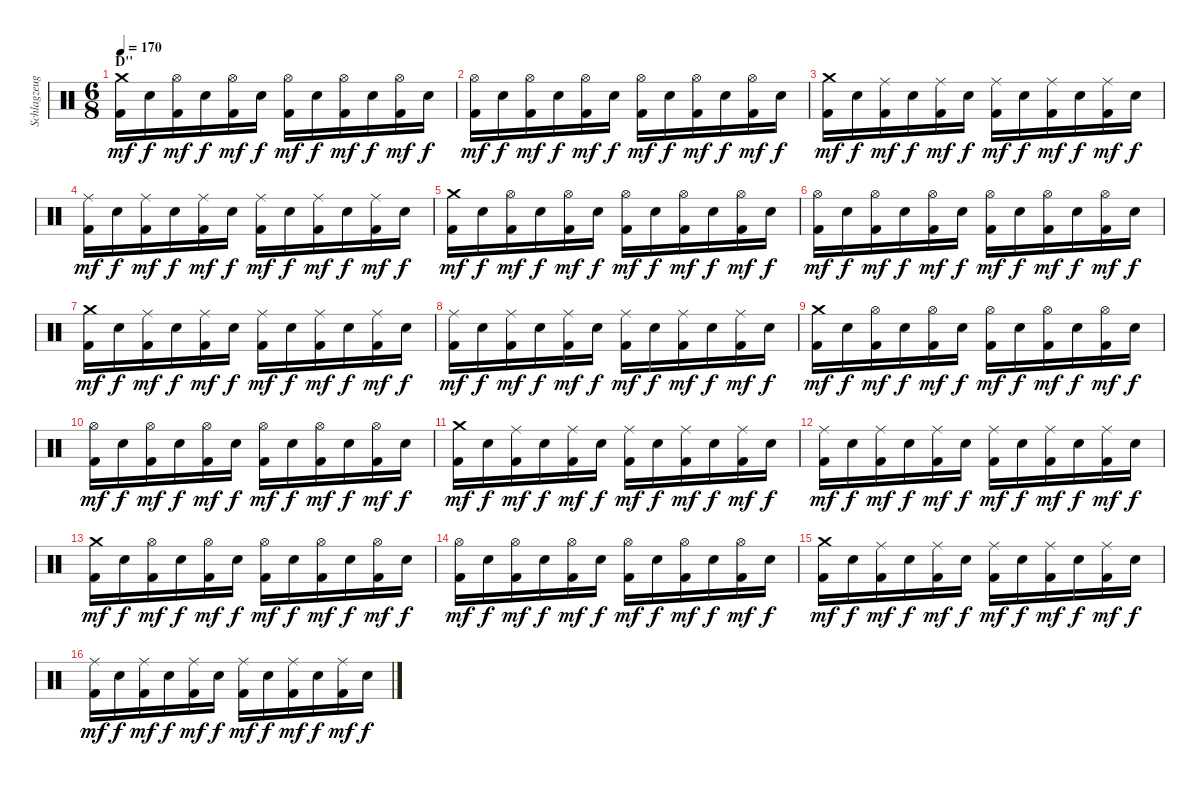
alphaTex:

\track ("Schlagzeug" "Schlagzeug") {instrument percussion}
\staff {score}
\articulation defaults
\ts (6 8)
\section ("" "D''")
\tempo 170
\clef neutral
\ks c
("Crash medium (hit)" "Kick (hit) 2").16{dy mf} "Electric Snare (hit)".16{dy f} ("Hi-Hat (open)" "Kick (hit) 2").16{dy mf} "Electric Snare (hit)".16{dy f} ("Hi-Hat (open)" "Kick (hit) 2").16{dy mf} "Electric Snare (hit)".16{dy f} ("Hi-Hat (open)" "Kick (hit) 2").16{dy mf} "Electric Snare (hit)".16{dy f} ("Hi-Hat (open)" "Kick (hit) 2").16{dy mf} "Electric Snare (hit)".16{dy f} ("Hi-Hat (open)" "Kick (hit) 2").16{dy mf} "Electric Snare (hit)".16{dy f} |
("Hi-Hat (open)" "Kick (hit) 2").16{dy mf} "Electric Snare (hit)".16{dy f} ("Hi-Hat (open)" "Kick (hit) 2").16{dy mf} "Electric Snare (hit)".16{dy f} ("Hi-Hat (open)" "Kick (hit) 2").16{dy mf} "Electric Snare (hit)".16{dy f} ("Hi-Hat (open)" "Kick (hit) 2").16{dy mf} "Electric Snare (hit)".16{dy f} ("Hi-Hat (open)" "Kick (hit) 2").16{dy mf} "Electric Snare (hit)".16{dy f} ("Hi-Hat (open)" "Kick (hit) 2").16{dy mf} "Electric Snare (hit)".16{dy f} |
("Crash medium (hit)" "Kick (hit) 2").16{dy mf} "Electric Snare (hit)".16{dy f} ("Ride (middle)" "Kick (hit) 2").16{dy mf} "Electric Snare (hit)".16{dy f} ("Ride (middle)" "Kick (hit) 2").16{dy mf} "Electric Snare (hit)".16{dy f} ("Ride (middle)" "Kick (hit) 2").16{dy mf} "Electric Snare (hit)".16{dy f} ("Ride (middle)" "Kick (hit) 2").16{dy mf} "Electric Snare (hit)".16{dy f} ("Ride (middle)" "Kick (hit) 2").16{dy mf} "Electric Snare (hit)".16{dy f} |
("Ride (middle)" "Kick (hit) 2").16{dy mf} "Electric Snare (hit)".16{dy f} ("Ride (middle)" "Kick (hit) 2").16{dy mf} "Electric Snare (hit)".16{dy f} ("Ride (middle)" "Kick (hit) 2").16{dy mf} "Electric Snare (hit)".16{dy f} ("Ride (middle)" "Kick (hit) 2").16{dy mf} "Electric Snare (hit)".16{dy f} ("Ride (middle)" "Kick (hit) 2").16{dy mf} "Electric Snare (hit)".16{dy f} ("Ride (middle)" "Kick (hit) 2").16{dy mf} "Electric Snare (hit)".16{dy f} |
("Crash medium (hit)" "Kick (hit) 2").16{dy mf} "Electric Snare (hit)".16{dy f} ("Hi-Hat (open)" "Kick (hit) 2").16{dy mf} "Electric Snare (hit)".16{dy f} ("Hi-Hat (open)" "Kick (hit) 2").16{dy mf} "Electric Snare (hit)".16{dy f} ("Hi-Hat (open)" "Kick (hit) 2").16{dy mf} "Electric Snare (hit)".16{dy f} ("Hi-Hat (open)" "Kick (hit) 2").16{dy mf} "Electric Snare (hit)".16{dy f} ("Hi-Hat (open)" "Kick (hit) 2").16{dy mf} "Electric Snare (hit)".16{dy f} |
("Hi-Hat (open)" "Kick (hit) 2").16{dy mf} "Electric Snare (hit)".16{dy f} ("Hi-Hat (open)" "Kick (hit) 2").16{dy mf} "Electric Snare (hit)".16{dy f} ("Hi-Hat (open)" "Kick (hit) 2").16{dy mf} "Electric Snare (hit)".16{dy f} ("Hi-Hat (open)" "Kick (hit) 2").16{dy mf} "Electric Snare (hit)".16{dy f} ("Hi-Hat (open)" "Kick (hit) 2").16{dy mf} "Electric Snare (hit)".16{dy f} ("Hi-Hat (open)" "Kick (hit) 2").16{dy mf} "Electric Snare (hit)".16{dy f} |
("Crash medium (hit)" "Kick (hit) 2").16{dy mf} "Electric Snare (hit)".16{dy f} ("Ride (middle)" "Kick (hit) 2").16{dy mf} "Electric Snare (hit)".16{dy f} ("Ride (middle)" "Kick (hit) 2").16{dy mf} "Electric Snare (hit)".16{dy f} ("Ride (middle)" "Kick (hit) 2").16{dy mf} "Electric Snare (hit)".16{dy f} ("Ride (middle)" "Kick (hit) 2").16{dy mf} "Electric Snare (hit)".16{dy f} ("Ride (middle)" "Kick (hit) 2").16{dy mf} "Electric Snare (hit)".16{dy f} |
("Ride (middle)" "Kick (hit) 2").16{dy mf} "Electric Snare (hit)".16{dy f} ("Ride (middle)" "Kick (hit) 2").16{dy mf} "Electric Snare (hit)".16{dy f} ("Ride (middle)" "Kick (hit) 2").16{dy mf} "Electric Snare (hit)".16{dy f} ("Ride (middle)" "Kick (hit) 2").16{dy mf} "Electric Snare (hit)".16{dy f} ("Ride (middle)" "Kick (hit) 2").16{dy mf} "Electric Snare (hit)".16{dy f} ("Ride (middle)" "Kick (hit) 2").16{dy mf} "Electric Snare (hit)".16{dy f} |
("Crash medium (hit)" "Kick (hit) 2").16{dy mf} "Electric Snare (hit)".16{dy f} ("Hi-Hat (open)" "Kick (hit) 2").16{dy mf} "Electric Snare (hit)".16{dy f} ("Hi-Hat (open)" "Kick (hit) 2").16{dy mf} "Electric Snare (hit)".16{dy f} ("Hi-Hat (open)" "Kick (hit) 2").16{dy mf} "Electric Snare (hit)".16{dy f} ("Hi-Hat (open)" "Kick (hit) 2").16{dy mf} "Electric Snare (hit)".16{dy f} ("Hi-Hat (open)" "Kick (hit) 2").16{dy mf} "Electric Snare (hit)".16{dy f} |
("Hi-Hat (open)" "Kick (hit) 2").16{dy mf} "Electric Snare (hit)".16{dy f} ("Hi-Hat (open)" "Kick (hit) 2").16{dy mf} "Electric Snare (hit)".16{dy f} ("Hi-Hat (open)" "Kick (hit) 2").16{dy mf} "Electric Snare (hit)".16{dy f} ("Hi-Hat (open)" "Kick (hit) 2").16{dy mf} "Electric Snare (hit)".16{dy f} ("Hi-Hat (open)" "Kick (hit) 2").16{dy mf} "Electric Snare (hit)".16{dy f} ("Hi-Hat (open)" "Kick (hit) 2").16{dy mf} "Electric Snare (hit)".16{dy f} |
("Crash medium (hit)" "Kick (hit) 2").16{dy mf} "Electric Snare (hit)".16{dy f} ("Ride (middle)" "Kick (hit) 2").16{dy mf} "Electric Snare (hit)".16{dy f} ("Ride (middle)" "Kick (hit) 2").16{dy mf} "Electric Snare (hit)".16{dy f} ("Ride (middle)" "Kick (hit) 2").16{dy mf} "Electric Snare (hit)".16{dy f} ("Ride (middle)" "Kick (hit) 2").16{dy mf} "Electric Snare (hit)".16{dy f} ("Ride (middle)" "Kick (hit) 2").16{dy mf} "Electric Snare (hit)".16{dy f} |
("Ride (middle)" "Kick (hit) 2").16{dy mf} "Electric Snare (hit)".16{dy f} ("Ride (middle)" "Kick (hit) 2").16{dy mf} "Electric Snare (hit)".16{dy f} ("Ride (middle)" "Kick (hit) 2").16{dy mf} "Electric Snare (hit)".16{dy f} ("Ride (middle)" "Kick (hit) 2").16{dy mf} "Electric Snare (hit)".16{dy f} ("Ride (middle)" "Kick (hit) 2").16{dy mf} "Electric Snare (hit)".16{dy f} ("Ride (middle)" "Kick (hit) 2").16{dy mf} "Electric Snare (hit)".16{dy f} |
("Crash medium (hit)" "Kick (hit) 2").16{dy mf} "Electric Snare (hit)".16{dy f} ("Hi-Hat (open)" "Kick (hit) 2").16{dy mf} "Electric Snare (hit)".16{dy f} ("Hi-Hat (open)" "Kick (hit) 2").16{dy mf} "Electric Snare (hit)".16{dy f} ("Hi-Hat (open)" "Kick (hit) 2").16{dy mf} "Electric Snare (hit)".16{dy f} ("Hi-Hat (open)" "Kick (hit) 2").16{dy mf} "Electric Snare (hit)".16{dy f} ("Hi-Hat (open)" "Kick (hit) 2").16{dy mf} "Electric Snare (hit)".16{dy f} |
("Hi-Hat (open)" "Kick (hit) 2").16{dy mf} "Electric Snare (hit)".16{dy f} ("Hi-Hat (open)" "Kick (hit) 2").16{dy mf} "Electric Snare (hit)".16{dy f} ("Hi-Hat (open)" "Kick (hit) 2").16{dy mf} "Electric Snare (hit)".16{dy f} ("Hi-Hat (open)" "Kick (hit) 2").16{dy mf} "Electric Snare (hit)".16{dy f} ("Hi-Hat (open)" "Kick (hit) 2").16{dy mf} "Electric Snare (hit)".16{dy f} ("Hi-Hat (open)" "Kick (hit) 2").16{dy mf} "Electric Snare (hit)".16{dy f} |
("Crash medium (hit)" "Kick (hit) 2").16{dy mf} "Electric Snare (hit)".16{dy f} ("Ride (middle)" "Kick (hit) 2").16{dy mf} "Electric Snare (hit)".16{dy f} ("Ride (middle)" "Kick (hit) 2").16{dy mf} "Electric Snare (hit)".16{dy f} ("Ride (middle)" "Kick (hit) 2").16{dy mf} "Electric Snare (hit)".16{dy f} ("Ride (middle)" "Kick (hit) 2").16{dy mf} "Electric Snare (hit)".16{dy f} ("Ride (middle)" "Kick (hit) 2").16{dy mf} "Electric Snare (hit)".16{dy f} |
("Ride (middle)" "Kick (hit) 2").16{dy mf} "Electric Snare (hit)".16{dy f} ("Ride (middle)" "Kick (hit) 2").16{dy mf} "Electric Snare (hit)".16{dy f} ("Ride (middle)" "Kick (hit) 2").16{dy mf} "Electric Snare (hit)".16{dy f} ("Ride (middle)" "Kick (hit) 2").16{dy mf} "Electric Snare (hit)".16{dy f} ("Ride (middle)" "Kick (hit) 2").16{dy mf} "Electric Snare (hit)".16{dy f} ("Ride (middle)" "Kick (hit) 2").16{dy mf} "Electric Snare (hit)".16{dy f}
